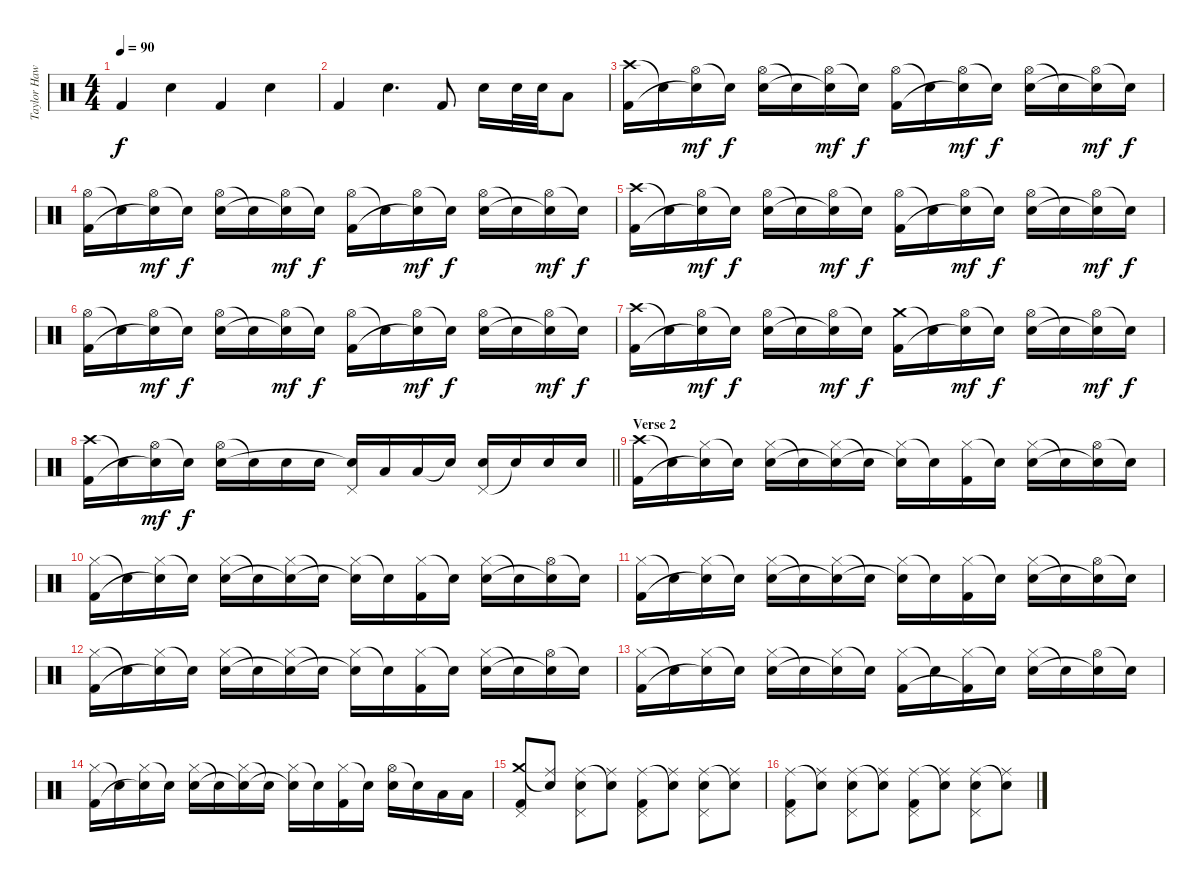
\track ("Taylor Hawkins " "Taylor Haw") {instrument percussion}
\staff {score}
\articulation defaults
\ts (4 4)
\tempo 90
\clef neutral
\ks c "Kick (hit) 2".4{dy f} "Snare (hit) 2".4 "Kick (hit) 2".4 "Snare (hit) 2".4
|
"Kick (hit) 2".4 "Snare (hit) 2".4{d} "Kick (hit) 2".8 "Snare (hit) 2".16 "Snare (hit) 2".32 "Snare (hit) 2".32 "Low Tom (hit)".8 |
("Crash high (hit)" "Kick (hit) 2").16 "Snare (hit)"{t}.16 ("Hi-Hat (open)" "Snare (hit)"{t}).16{dy mf} "Snare (hit)"{t}.16{dy f} ("Hi-Hat (open)" "Snare (hit) 2").16 "Snare (hit)"{t}.16 ("Hi-Hat (open)" "Snare (hit)"{t}).16{dy mf} "Snare (hit)"{t}.16{dy f} ("Hi-Hat (open)" "Kick (hit) 2").16 "Snare (hit)"{t}.16 ("Hi-Hat (open)" "Snare (hit)"{t}).16{dy mf} "Snare (hit)"{t}.16{dy f} ("Hi-Hat (open)" "Snare (hit) 2").16 "Snare (hit)"{t}.16 ("Hi-Hat (open)" "Snare (hit)"{t}).16{dy mf} "Snare (hit)"{t}.16{dy f} |
("Hi-Hat (open)" "Kick (hit) 2").16 "Snare (hit)"{t}.16 ("Hi-Hat (open)" "Snare (hit)"{t}).16{dy mf} "Snare (hit)"{t}.16{dy f} ("Hi-Hat (open)" "Snare (hit) 2").16 "Snare (hit)"{t}.16 ("Hi-Hat (open)" "Snare (hit)"{t}).16{dy mf} "Snare (hit)"{t}.16{dy f} ("Hi-Hat (open)" "Kick (hit) 2").16 "Snare (hit)"{t}.16 ("Hi-Hat (open)" "Snare (hit)"{t}).16{dy mf} "Snare (hit)"{t}.16{dy f} ("Hi-Hat (open)" "Snare (hit) 2").16 "Snare (hit)"{t}.16 ("Hi-Hat (open)" "Snare (hit)"{t}).16{dy mf} "Snare (hit)"{t}.16{dy f} |
("Crash high (hit)" "Kick (hit) 2").16 "Snare (hit)"{t}.16 ("Hi-Hat (open)" "Snare (hit)"{t}).16{dy mf} "Snare (hit)"{t}.16{dy f} ("Hi-Hat (open)" "Snare (hit) 2").16 "Snare (hit)"{t}.16 ("Hi-Hat (open)" "Snare (hit)"{t}).16{dy mf} "Snare (hit)"{t}.16{dy f} ("Hi-Hat (open)" "Kick (hit) 2").16 "Snare (hit)"{t}.16 ("Hi-Hat (open)" "Snare (hit)"{t}).16{dy mf} "Snare (hit)"{t}.16{dy f} ("Hi-Hat (open)" "Snare (hit) 2").16 "Snare (hit)"{t}.16 ("Hi-Hat (open)" "Snare (hit)"{t}).16{dy mf} "Snare (hit)"{t}.16{dy f} |
("Hi-Hat (open)" "Kick (hit) 2").16 "Snare (hit)"{t}.16 ("Hi-Hat (open)" "Snare (hit)"{t}).16{dy mf} "Snare (hit)"{t}.16{dy f} ("Hi-Hat (open)" "Snare (hit) 2").16 "Snare (hit)"{t}.16 ("Hi-Hat (open)" "Snare (hit)"{t}).16{dy mf} "Snare (hit)"{t}.16{dy f} ("Hi-Hat (open)" "Kick (hit) 2").16 "Snare (hit)"{t}.16 ("Hi-Hat (open)" "Snare (hit)"{t}).16{dy mf} "Snare (hit)"{t}.16{dy f} ("Hi-Hat (open)" "Snare (hit) 2").16 "Snare (hit)"{t}.16 ("Hi-Hat (open)" "Snare (hit)"{t}).16{dy mf} "Snare (hit)"{t}.16{dy f} |
("Crash high (hit)" "Kick (hit) 2").16 "Snare (hit)"{t}.16 ("Hi-Hat (open)" "Snare (hit)"{t}).16{dy mf} "Snare (hit)"{t}.16{dy f} ("Hi-Hat (open)" "Snare (hit) 2").16 "Snare (hit)"{t}.16 ("Hi-Hat (open)" "Snare (hit)"{t}).16{dy mf} "Snare (hit)"{t}.16{dy f} ("Crash medium (hit)" "Kick (hit) 2").16 "Snare (hit)"{t}.16 ("Hi-Hat (open)" "Snare (hit)"{t}).16{dy mf} "Snare (hit)"{t}.16{dy f} ("Hi-Hat (open)" "Snare (hit) 2").16 "Snare (hit)"{t}.16 ("Hi-Hat (open)" "Snare (hit)"{t}).16{dy mf} "Snare (hit)"{t}.16{dy f} |
\barLineRight lightlight
("Crash high (hit)" "Kick (hit) 2").16 "Snare (hit)"{t}.16 ("Hi-Hat (open)" "Snare (hit)"{t}).16{dy mf} "Snare (hit)"{t}.16{dy f} ("Hi-Hat (open)" "Snare (hit) 2").16 "Snare (hit)"{t}.16 "Snare (hit) 2".16 "Snare (hit) 2".16 ("Pedal Hi-Hat (hit)" "Snare (hit)"{t}).16 "Low Tom (hit)".16 "Low Floor Tom (hit)".16 "Snare (hit)"{t}.16 ("Pedal Hi-Hat (hit)" "Snare (hit) 2").16 "Snare (hit)"{t}.16 "Snare (hit) 2".16 "Snare (hit) 2".16 |
\section ("" "Verse 2")
("Crash high (hit)" "Kick (hit) 2").16 "Snare (hit)"{t}.16 ("Hi-Hat (closed)" "Snare (hit)"{t}).16 "Snare (hit)"{t}.16 ("Hi-Hat (closed)" "Snare (hit) 2").16 "Snare (hit)"{t}.16 ("Hi-Hat (closed)" "Snare (hit)"{t}).16 "Snare (hit)"{t}.16 ("Hi-Hat (closed)" "Snare (hit)"{t}).16 "Snare (hit)"{t}.16 ("Hi-Hat (closed)" "Kick (hit) 2").16 "Snare (hit)"{t}.16 ("Hi-Hat (closed)" "Snare (hit) 2").16 "Snare (hit)"{t}.16 ("Hi-Hat (open)" "Snare (hit)"{t}).16 "Snare (hit)"{t}.16 |
("Hi-Hat (closed)" "Kick (hit) 2").16 "Snare (hit)"{t}.16 ("Hi-Hat (closed)" "Snare (hit)"{t}).16 "Snare (hit)"{t}.16 ("Hi-Hat (closed)" "Snare (hit) 2").16 "Snare (hit)"{t}.16 ("Hi-Hat (closed)" "Snare (hit)"{t}).16 "Snare (hit)"{t}.16 ("Hi-Hat (closed)" "Snare (hit)"{t}).16 "Snare (hit)"{t}.16 ("Hi-Hat (closed)" "Kick (hit) 2").16 "Snare (hit)"{t}.16 ("Hi-Hat (closed)" "Snare (hit) 2").16 "Snare (hit)"{t}.16 ("Hi-Hat (open)" "Snare (hit)"{t}).16 "Snare (hit)"{t}.16 |
("Hi-Hat (closed)" "Kick (hit) 2").16 "Snare (hit)"{t}.16 ("Hi-Hat (closed)" "Snare (hit)"{t}).16 "Snare (hit)"{t}.16 ("Hi-Hat (closed)" "Snare (hit) 2").16 "Snare (hit)"{t}.16 ("Hi-Hat (closed)" "Snare (hit)"{t}).16 "Snare (hit)"{t}.16 ("Hi-Hat (closed)" "Snare (hit)"{t}).16 "Snare (hit)"{t}.16 ("Hi-Hat (closed)" "Kick (hit) 2").16 "Snare (hit)"{t}.16 ("Hi-Hat (closed)" "Snare (hit) 2").16 "Snare (hit)"{t}.16 ("Hi-Hat (open)" "Snare (hit)"{t}).16 "Snare (hit)"{t}.16 |
("Hi-Hat (closed)" "Kick (hit) 2").16 "Snare (hit)"{t}.16 ("Hi-Hat (closed)" "Snare (hit)"{t}).16 "Snare (hit)"{t}.16 ("Hi-Hat (closed)" "Snare (hit) 2").16 "Snare (hit)"{t}.16 ("Hi-Hat (closed)" "Snare (hit)"{t}).16 "Snare (hit)"{t}.16 ("Hi-Hat (closed)" "Snare (hit)"{t}).16 "Snare (hit)"{t}.16 ("Hi-Hat (closed)" "Kick (hit) 2").16 "Snare (hit)"{t}.16 ("Hi-Hat (closed)" "Snare (hit) 2").16 "Snare (hit)"{t}.16 ("Hi-Hat (open)" "Snare (hit)"{t}).16 "Snare (hit)"{t}.16 |
("Hi-Hat (closed)" "Kick (hit) 2").16 "Snare (hit)"{t}.16 ("Hi-Hat (closed)" "Snare (hit)"{t}).16 "Snare (hit)"{t}.16 ("Hi-Hat (closed)" "Snare (hit) 2").16 "Snare (hit)"{t}.16 ("Hi-Hat (closed)" "Snare (hit)"{t}).16 "Snare (hit)"{t}.16 ("Hi-Hat (closed)" "Kick (hit) 2").16 "Snare (hit)"{t}.16 ("Hi-Hat (closed)" "Kick (hit) 2"{t}).16 "Snare (hit)"{t}.16 ("Hi-Hat (closed)" "Snare (hit) 2").16 "Snare (hit)"{t}.16 ("Hi-Hat (open)" "Snare (hit)"{t}).16 "Snare (hit)"{t}.16 |
("Hi-Hat (closed)" "Kick (hit) 2").16 "Snare (hit)"{t}.16 ("Hi-Hat (closed)" "Snare (hit)"{t}).16 "Snare (hit)"{t}.16 ("Hi-Hat (closed)" "Snare (hit) 2").16 "Snare (hit)"{t}.16 ("Hi-Hat (closed)" "Snare (hit)"{t}).16 "Snare (hit)"{t}.16 ("Hi-Hat (closed)" "Snare (hit)"{t}).16 "Snare (hit)"{t}.16 ("Hi-Hat (closed)" "Kick (hit) 2").16 "Snare (hit)"{t}.16 ("Hi-Hat (open)" "Snare (hit) 2").16 "Snare (hit)"{t}.16 "Low Tom (hit)".16 "Low Floor Tom (hit)".16 |
("Pedal Hi-Hat (hit)" "Crash medium (hit)" "Kick (hit) 2").8 ("Ride (middle)" "Snare (hit)"{t}).8 ("Pedal Hi-Hat (hit)" "Ride (middle)" "Snare (hit) 2").8 ("Ride (middle)" "Snare (hit)"{t}).8 ("Pedal Hi-Hat (hit)" "Ride (middle)" "Kick (hit) 2").8 ("Ride (middle)" "Snare (hit)"{t}).8 ("Pedal Hi-Hat (hit)" "Ride (middle)" "Snare (hit) 2").8 ("Ride (middle)" "Snare (hit)"{t}).8 |
("Pedal Hi-Hat (hit)" "Ride (middle)" "Kick (hit) 2").8 ("Ride (middle)" "Snare (hit)"{t}).8 ("Pedal Hi-Hat (hit)" "Ride (middle)" "Snare (hit) 2").8 ("Ride (middle)" "Snare (hit)"{t}).8 ("Pedal Hi-Hat (hit)" "Ride (middle)" "Kick (hit) 2").8 ("Ride (middle)" "Snare (hit)"{t}).8 ("Pedal Hi-Hat (hit)" "Ride (middle)" "Snare (hit) 2").8 ("Ride (middle)" "Snare (hit)"{t}).8
